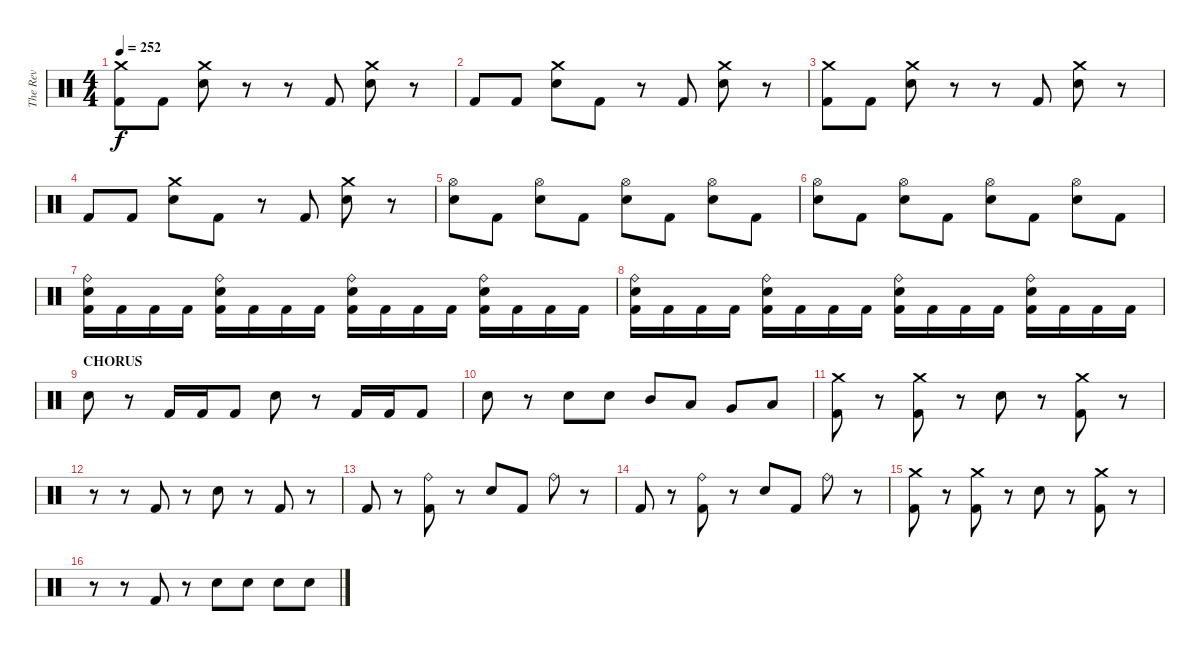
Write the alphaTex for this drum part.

\track ("The Rev" "The Rev") {instrument percussion}
\staff {score}
\articulation defaults
\ts (4 4)
\tempo 252
\clef neutral
\ks c
("Crash medium (hit)" "Kick (hit) 2").8{dy f} "Kick (hit) 2".8 ("Crash medium (hit)" "Electric Snare (hit)").8 r.8 r.8 "Kick (hit) 2".8 ("Crash medium (hit)" "Electric Snare (hit)").8 r.8 |
"Kick (hit) 2".8 "Kick (hit) 2".8 ("Crash medium (hit)" "Electric Snare (hit)").8 "Kick (hit) 2".8 r.8 "Kick (hit) 2".8 ("Crash medium (hit)" "Electric Snare (hit)").8 r.8 |
("Crash medium (hit)" "Kick (hit) 2").8 "Kick (hit) 2".8 ("Crash medium (hit)" "Electric Snare (hit)").8 r.8 r.8 "Kick (hit) 2".8 ("Crash medium (hit)" "Electric Snare (hit)").8 r.8 |
"Kick (hit) 2".8 "Kick (hit) 2".8 ("Crash medium (hit)" "Electric Snare (hit)").8 "Kick (hit) 2".8 r.8 "Kick (hit) 2".8 ("Crash medium (hit)" "Electric Snare (hit)").8 r.8 |
("Hi-Hat (open)" "Electric Snare (hit)").8 "Kick (hit) 2".8 ("Hi-Hat (open)" "Electric Snare (hit)").8 "Kick (hit) 2".8 ("Hi-Hat (open)" "Electric Snare (hit)").8 "Kick (hit) 2".8 ("Hi-Hat (open)" "Electric Snare (hit)").8 "Kick (hit) 2".8 |
("Hi-Hat (open)" "Electric Snare (hit)").8 "Kick (hit) 2".8 ("Hi-Hat (open)" "Electric Snare (hit)").8 "Kick (hit) 2".8 ("Hi-Hat (open)" "Electric Snare (hit)").8 "Kick (hit) 2".8 ("Hi-Hat (open)" "Electric Snare (hit)").8 "Kick (hit) 2".8 |
("Ride (bell)" "Electric Snare (hit)" "Kick (hit) 2").16 "Kick (hit) 2".16 "Kick (hit) 2".16 "Kick (hit) 2".16 ("Ride (bell)" "Electric Snare (hit)" "Kick (hit) 2").16 "Kick (hit) 2".16 "Kick (hit) 2".16 "Kick (hit) 2".16 ("Ride (bell)" "Electric Snare (hit)" "Kick (hit) 2").16 "Kick (hit) 2".16 "Kick (hit) 2".16 "Kick (hit) 2".16 ("Ride (bell)" "Electric Snare (hit)" "Kick (hit) 2").16 "Kick (hit) 2".16 "Kick (hit) 2".16 "Kick (hit) 2".16 |
("Ride (bell)" "Electric Snare (hit)" "Kick (hit) 2").16 "Kick (hit) 2".16 "Kick (hit) 2".16 "Kick (hit) 2".16 ("Ride (bell)" "Electric Snare (hit)" "Kick (hit) 2").16 "Kick (hit) 2".16 "Kick (hit) 2".16 "Kick (hit) 2".16 ("Ride (bell)" "Electric Snare (hit)" "Kick (hit) 2").16 "Kick (hit) 2".16 "Kick (hit) 2".16 "Kick (hit) 2".16 ("Ride (bell)" "Electric Snare (hit)" "Kick (hit) 2").16 "Kick (hit) 2".16 "Kick (hit) 2".16 "Kick (hit) 2".16 |
\section ("" "CHORUS")
"Electric Snare (hit)".8 r.8 "Kick (hit) 2".16 "Kick (hit) 2".16 "Kick (hit) 2".8 "Electric Snare (hit)".8 r.8 "Kick (hit) 2".16 "Kick (hit) 2".16 "Kick (hit) 2".8 |
"Electric Snare (hit)".8 r.8 "Electric Snare (hit)".8 "Electric Snare (hit)".8 "Mid Tom (hit)".8 "Low Tom (hit)".8 "Very Low Tom (hit)".8 "Low Floor Tom (hit)".8 |
("Crash medium (hit)" "Kick (hit) 2").8 r.8 ("Crash medium (hit)" "Kick (hit) 2").8 r.8 "Electric Snare (hit)".8 r.8 ("Crash medium (hit)" "Kick (hit) 2").8 r.8 |
r.8 r.8 "Kick (hit) 2".8 r.8 "Electric Snare (hit)".8 r.8 "Kick (hit) 2".8 r.8 |
"Kick (hit) 2".8 r.8 ("Ride (bell)" "Kick (hit) 2").8 r.8 "Electric Snare (hit)".8 "Kick (hit) 2".8 "Ride (bell)".8 r.8 |
"Kick (hit) 2".8 r.8 ("Ride (bell)" "Kick (hit) 2").8 r.8 "Electric Snare (hit)".8 "Kick (hit) 2".8 "Ride (bell)".8 r.8 |
("Crash medium (hit)" "Kick (hit) 2").8 r.8 ("Crash medium (hit)" "Kick (hit) 2").8 r.8 "Electric Snare (hit)".8 r.8 ("Crash medium (hit)" "Kick (hit) 2").8 r.8 |
r.8 r.8 "Kick (hit) 2".8 r.8 "Electric Snare (hit)".8 "Electric Snare (hit)".8 "Electric Snare (hit)".8 "Electric Snare (hit)".8
